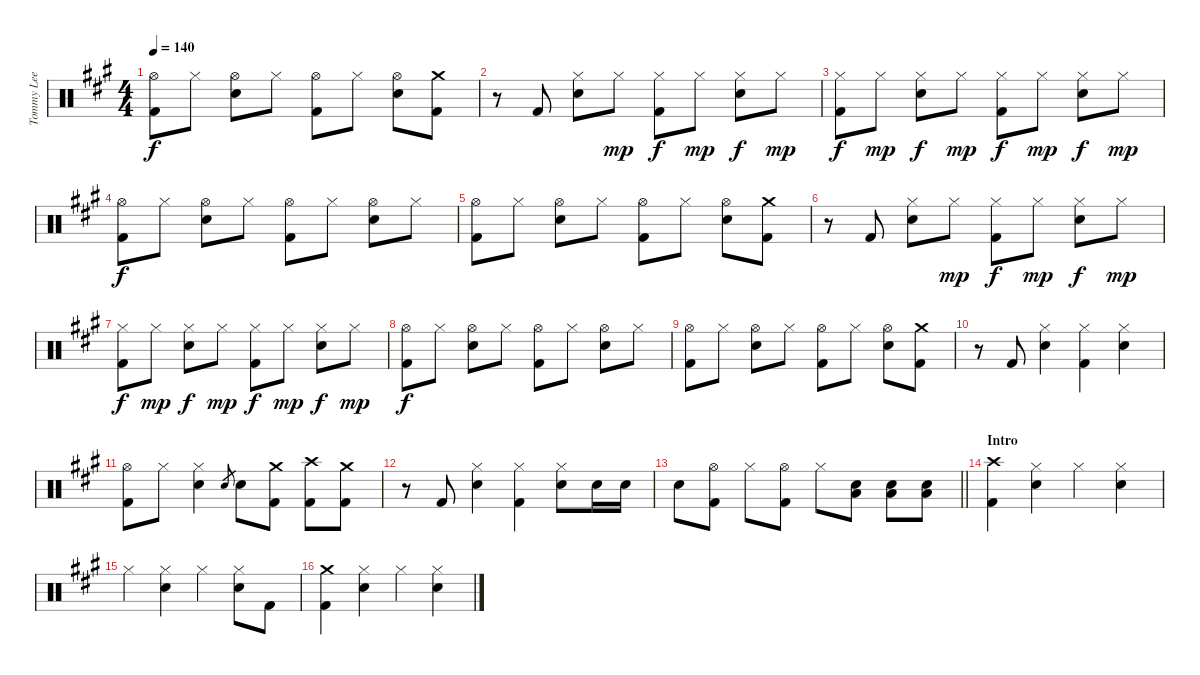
\track ("Tommy Lee - Drums" "Tommy Lee ") {instrument percussion}
\staff {score}
\articulation defaults
\ts (4 4)
\tempo 140
\clef neutral
\ks a
("Hi-Hat (open)" "Kick (hit) 2").8{dy f} "Hi-Hat (closed)".8 ("Hi-Hat (open)" "Snare (hit) 2").8 "Hi-Hat (closed)".8 ("Hi-Hat (open)" "Kick (hit) 2").8 "Hi-Hat (closed)".8 ("Hi-Hat (open)" "Snare (hit) 2").8 ("Crash medium (hit)" "Kick (hit) 2").8 |
r.8 "Kick (hit) 2".8 ("Hi-Hat (closed)" "Snare (hit) 2").8 "Hi-Hat (closed)".8{dy mp} ("Hi-Hat (closed)" "Kick (hit) 2").8{dy f} "Hi-Hat (closed)".8{dy mp} ("Hi-Hat (closed)" "Snare (hit) 2").8{dy f} "Hi-Hat (closed)".8{dy mp} |
("Hi-Hat (closed)" "Kick (hit) 2").8{dy f} "Hi-Hat (closed)".8{dy mp} ("Hi-Hat (closed)" "Snare (hit) 2").8{dy f} "Hi-Hat (closed)".8{dy mp} ("Hi-Hat (closed)" "Kick (hit) 2").8{dy f} "Hi-Hat (closed)".8{dy mp} ("Hi-Hat (closed)" "Snare (hit) 2").8{dy f} "Hi-Hat (closed)".8{dy mp} |
("Hi-Hat (open)" "Kick (hit) 2").8{dy f} "Hi-Hat (closed)".8 ("Hi-Hat (open)" "Snare (hit) 2").8 "Hi-Hat (closed)".8 ("Hi-Hat (open)" "Kick (hit) 2").8 "Hi-Hat (closed)".8 ("Hi-Hat (open)" "Snare (hit) 2").8 "Hi-Hat (closed)".8 |
("Hi-Hat (open)" "Kick (hit) 2").8 "Hi-Hat (closed)".8 ("Hi-Hat (open)" "Snare (hit) 2").8 "Hi-Hat (closed)".8 ("Hi-Hat (open)" "Kick (hit) 2").8 "Hi-Hat (closed)".8 ("Hi-Hat (open)" "Snare (hit) 2").8 ("Crash medium (hit)" "Kick (hit) 2").8 |
r.8 "Kick (hit) 2".8 ("Hi-Hat (closed)" "Snare (hit) 2").8 "Hi-Hat (closed)".8{dy mp} ("Hi-Hat (closed)" "Kick (hit) 2").8{dy f} "Hi-Hat (closed)".8{dy mp} ("Hi-Hat (closed)" "Snare (hit) 2").8{dy f} "Hi-Hat (closed)".8{dy mp} |
("Hi-Hat (closed)" "Kick (hit) 2").8{dy f} "Hi-Hat (closed)".8{dy mp} ("Hi-Hat (closed)" "Snare (hit) 2").8{dy f} "Hi-Hat (closed)".8{dy mp} ("Hi-Hat (closed)" "Kick (hit) 2").8{dy f} "Hi-Hat (closed)".8{dy mp} ("Hi-Hat (closed)" "Snare (hit) 2").8{dy f} "Hi-Hat (closed)".8{dy mp} |
("Hi-Hat (open)" "Kick (hit) 2").8{dy f} "Hi-Hat (closed)".8 ("Hi-Hat (open)" "Snare (hit) 2").8 "Hi-Hat (closed)".8 ("Hi-Hat (open)" "Kick (hit) 2").8 "Hi-Hat (closed)".8 ("Hi-Hat (open)" "Snare (hit) 2").8 "Hi-Hat (closed)".8 |
("Hi-Hat (open)" "Kick (hit) 2").8 "Hi-Hat (closed)".8 ("Hi-Hat (open)" "Snare (hit) 2").8 "Hi-Hat (closed)".8 ("Hi-Hat (open)" "Kick (hit) 2").8 "Hi-Hat (closed)".8 ("Hi-Hat (open)" "Snare (hit) 2").8 ("Crash medium (hit)" "Kick (hit) 2").8 |
r.8 "Kick (hit) 2".8 ("Hi-Hat (closed)" "Snare (hit) 2").4 ("Hi-Hat (closed)" "Kick (hit) 2").4 ("Hi-Hat (closed)" "Snare (hit) 2").4 |
("Hi-Hat (open)" "Kick (hit) 2").8 "Hi-Hat (closed)".8 ("Hi-Hat (closed)" "Snare (hit) 2").4 "Snare (hit) 2".8{gr} "Snare (hit) 2".8 ("Crash medium (hit)" "Kick (hit) 2").8 ("Crash high (hit)" "Kick (hit) 2").8 ("Crash medium (hit)" "Kick (hit) 2").8 |
r.8 "Kick (hit) 2".8 ("Hi-Hat (closed)" "Snare (hit) 2").4 ("Hi-Hat (closed)" "Kick (hit) 2").4 ("Hi-Hat (closed)" "Snare (hit) 2").8 "Snare (hit) 2".16 "Snare (hit) 2".16 |
\barLineRight lightlight "Snare (hit) 2".8
("Hi-Hat (open)" "Kick (hit) 2").8 "Hi-Hat (closed)".8 ("Hi-Hat (open)" "Kick (hit) 2").8 "Hi-Hat (closed)".8 ("Low Tom (hit)" "Snare (hit) 2").8 ("Low Tom (hit)" "Snare (hit) 2").8 ("Low Tom (hit)" "Snare (hit) 2").8 |
\section ("" "Intro")
("Crash high (hit)" "Kick (hit) 2").4 ("Hi-Hat (closed)" "Snare (hit) 2").4 "Hi-Hat (closed)".4 ("Hi-Hat (closed)" "Snare (hit) 2").4 |
"Hi-Hat (closed)".4 ("Hi-Hat (closed)" "Snare (hit) 2").4 "Hi-Hat (closed)".4 ("Hi-Hat (closed)" "Snare (hit) 2").8 "Kick (hit) 2".8 |
("Crash medium (hit)" "Kick (hit) 2").4 ("Hi-Hat (closed)" "Snare (hit) 2").4 "Hi-Hat (closed)".4 ("Hi-Hat (closed)" "Snare (hit) 2").4
